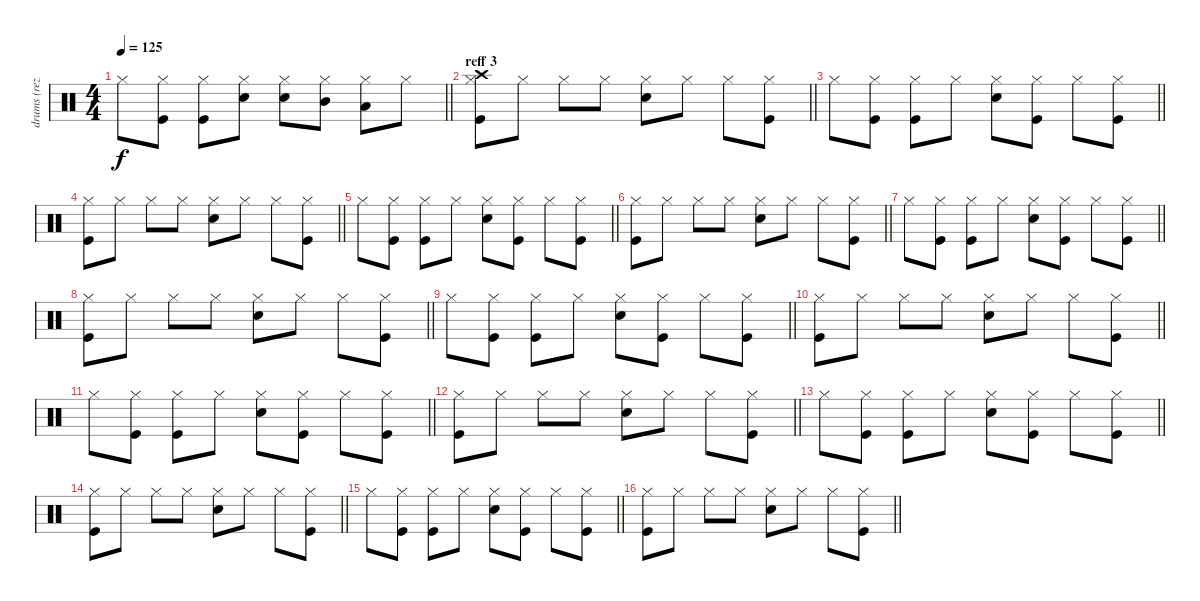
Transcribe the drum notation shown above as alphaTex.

\track ("drums (reza)" "drums (rez") {instrument percussion}
\staff {score}
\articulation defaults
\ts (4 4)
\tempo 125
\clef neutral
\barLineRight lightlight
\ks c "Hi-Hat (closed)".8{dy f}
("Hi-Hat (closed)" "Kick (hit)").8 ("Hi-Hat (closed)" "Kick (hit)").8 ("Hi-Hat (closed)" "Snare (hit) 2").8 ("Hi-Hat (closed)" "Snare (hit) 2").8 ("Hi-Hat (closed)" "Mid Tom (hit)").8 ("Hi-Hat (closed)" "Low Tom (hit)").8 "Hi-Hat (closed)".8 |
\section ("" "reff 3")
\barLineRight lightlight
("Hi-Hat (closed)" "Kick (hit)" "Crash high (hit)").8 "Hi-Hat (closed)".8 "Hi-Hat (closed)".8 "Hi-Hat (closed)".8 ("Hi-Hat (closed)" "Snare (hit) 2").8 "Hi-Hat (closed)".8 "Hi-Hat (closed)".8 ("Hi-Hat (closed)" "Kick (hit)").8 |
\barLineRight lightlight "Hi-Hat (closed)".8
("Hi-Hat (closed)" "Kick (hit)").8 ("Hi-Hat (closed)" "Kick (hit)").8 "Hi-Hat (closed)".8 ("Hi-Hat (closed)" "Snare (hit) 2").8 ("Hi-Hat (closed)" "Kick (hit)").8 "Hi-Hat (closed)".8 ("Hi-Hat (closed)" "Kick (hit)").8 |
\barLineRight lightlight
("Hi-Hat (closed)" "Kick (hit)").8 "Hi-Hat (closed)".8 "Hi-Hat (closed)".8 "Hi-Hat (closed)".8 ("Hi-Hat (closed)" "Snare (hit) 2").8 "Hi-Hat (closed)".8 "Hi-Hat (closed)".8 ("Hi-Hat (closed)" "Kick (hit)").8 |
\barLineRight lightlight "Hi-Hat (closed)".8
("Hi-Hat (closed)" "Kick (hit)").8 ("Hi-Hat (closed)" "Kick (hit)").8 "Hi-Hat (closed)".8 ("Hi-Hat (closed)" "Snare (hit) 2").8 ("Hi-Hat (closed)" "Kick (hit)").8 "Hi-Hat (closed)".8 ("Hi-Hat (closed)" "Kick (hit)").8 |
\barLineRight lightlight
("Hi-Hat (closed)" "Kick (hit)").8 "Hi-Hat (closed)".8 "Hi-Hat (closed)".8 "Hi-Hat (closed)".8 ("Hi-Hat (closed)" "Snare (hit) 2").8 "Hi-Hat (closed)".8 "Hi-Hat (closed)".8 ("Hi-Hat (closed)" "Kick (hit)").8 |
\barLineRight lightlight "Hi-Hat (closed)".8
("Hi-Hat (closed)" "Kick (hit)").8 ("Hi-Hat (closed)" "Kick (hit)").8 "Hi-Hat (closed)".8 ("Hi-Hat (closed)" "Snare (hit) 2").8 ("Hi-Hat (closed)" "Kick (hit)").8 "Hi-Hat (closed)".8 ("Hi-Hat (closed)" "Kick (hit)").8 |
\barLineRight lightlight
("Hi-Hat (closed)" "Kick (hit)").8 "Hi-Hat (closed)".8 "Hi-Hat (closed)".8 "Hi-Hat (closed)".8 ("Hi-Hat (closed)" "Snare (hit) 2").8 "Hi-Hat (closed)".8 "Hi-Hat (closed)".8 ("Hi-Hat (closed)" "Kick (hit)").8 |
\barLineRight lightlight "Hi-Hat (closed)".8
("Hi-Hat (closed)" "Kick (hit)").8 ("Hi-Hat (closed)" "Kick (hit)").8 "Hi-Hat (closed)".8 ("Hi-Hat (closed)" "Snare (hit) 2").8 ("Hi-Hat (closed)" "Kick (hit)").8 "Hi-Hat (closed)".8 ("Hi-Hat (closed)" "Kick (hit)").8 |
\barLineRight lightlight
("Hi-Hat (closed)" "Kick (hit)").8 "Hi-Hat (closed)".8 "Hi-Hat (closed)".8 "Hi-Hat (closed)".8 ("Hi-Hat (closed)" "Snare (hit) 2").8 "Hi-Hat (closed)".8 "Hi-Hat (closed)".8 ("Hi-Hat (closed)" "Kick (hit)").8 |
\barLineRight lightlight "Hi-Hat (closed)".8
("Hi-Hat (closed)" "Kick (hit)").8 ("Hi-Hat (closed)" "Kick (hit)").8 "Hi-Hat (closed)".8 ("Hi-Hat (closed)" "Snare (hit) 2").8 ("Hi-Hat (closed)" "Kick (hit)").8 "Hi-Hat (closed)".8 ("Hi-Hat (closed)" "Kick (hit)").8 |
\barLineRight lightlight
("Hi-Hat (closed)" "Kick (hit)").8 "Hi-Hat (closed)".8 "Hi-Hat (closed)".8 "Hi-Hat (closed)".8 ("Hi-Hat (closed)" "Snare (hit) 2").8 "Hi-Hat (closed)".8 "Hi-Hat (closed)".8 ("Hi-Hat (closed)" "Kick (hit)").8 |
\barLineRight lightlight "Hi-Hat (closed)".8
("Hi-Hat (closed)" "Kick (hit)").8 ("Hi-Hat (closed)" "Kick (hit)").8 "Hi-Hat (closed)".8 ("Hi-Hat (closed)" "Snare (hit) 2").8 ("Hi-Hat (closed)" "Kick (hit)").8 "Hi-Hat (closed)".8 ("Hi-Hat (closed)" "Kick (hit)").8 |
\barLineRight lightlight
("Hi-Hat (closed)" "Kick (hit)").8 "Hi-Hat (closed)".8 "Hi-Hat (closed)".8 "Hi-Hat (closed)".8 ("Hi-Hat (closed)" "Snare (hit) 2").8 "Hi-Hat (closed)".8 "Hi-Hat (closed)".8 ("Hi-Hat (closed)" "Kick (hit)").8 |
\barLineRight lightlight "Hi-Hat (closed)".8
("Hi-Hat (closed)" "Kick (hit)").8 ("Hi-Hat (closed)" "Kick (hit)").8 "Hi-Hat (closed)".8 ("Hi-Hat (closed)" "Snare (hit) 2").8 ("Hi-Hat (closed)" "Kick (hit)").8 "Hi-Hat (closed)".8 ("Hi-Hat (closed)" "Kick (hit)").8 |
\barLineRight lightlight
("Hi-Hat (closed)" "Kick (hit)").8 "Hi-Hat (closed)".8 "Hi-Hat (closed)".8 "Hi-Hat (closed)".8 ("Hi-Hat (closed)" "Snare (hit) 2").8 "Hi-Hat (closed)".8 "Hi-Hat (closed)".8 ("Hi-Hat (closed)" "Kick (hit)").8
